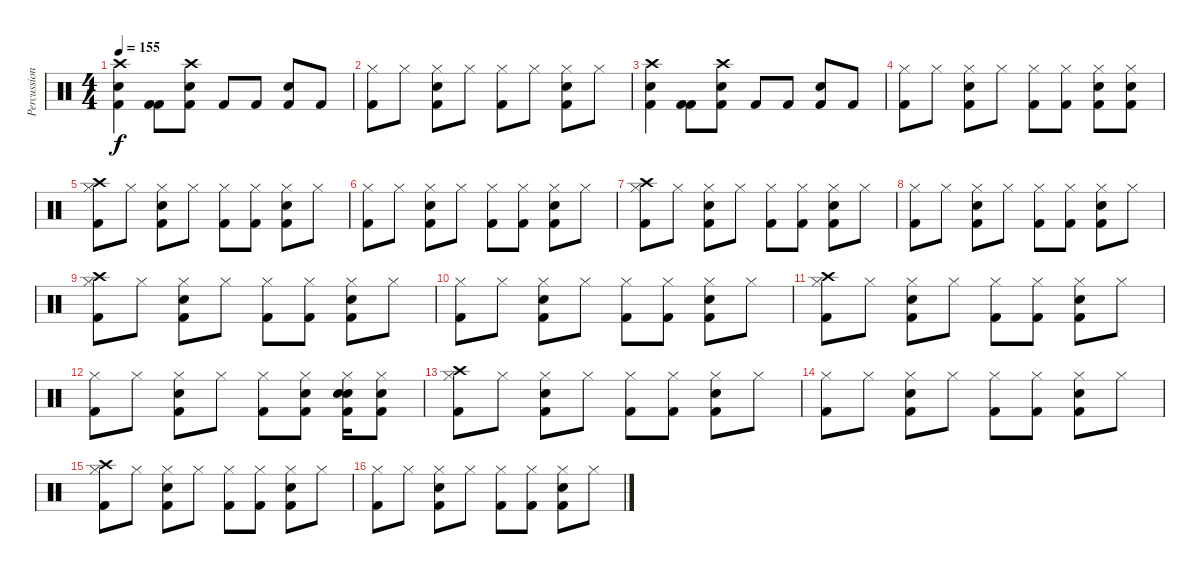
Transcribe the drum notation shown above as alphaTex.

\track ("Percussion" "Percussion") {instrument percussion}
\staff {score}
\articulation defaults
\ts (4 4)
\tempo 155
\clef neutral
\ks c
("Crash high (hit)" "Snare (hit) 2" "Kick (hit) 2").4{dy f} ("Kick (hit) 2" "Kick (hit) 2").8 ("Crash high (hit)" "Snare (hit) 2" "Kick (hit) 2").8 "Kick (hit) 2".8 "Kick (hit) 2".8 ("Snare (hit) 2" "Kick (hit) 2").8 "Kick (hit) 2".8 |
("Kick (hit) 2" "Hi-Hat (closed)").8 "Hi-Hat (closed)".8 ("Snare (hit) 2" "Kick (hit) 2" "Hi-Hat (closed)").8 "Hi-Hat (closed)".8 ("Kick (hit) 2" "Hi-Hat (closed)").8 "Hi-Hat (closed)".8 ("Snare (hit) 2" "Kick (hit) 2" "Hi-Hat (closed)").8 "Hi-Hat (closed)".8 |
("Crash high (hit)" "Snare (hit) 2" "Kick (hit) 2").4 ("Kick (hit) 2" "Kick (hit) 2").8 ("Crash high (hit)" "Snare (hit) 2" "Kick (hit) 2").8 "Kick (hit) 2".8 "Kick (hit) 2".8 ("Snare (hit) 2" "Kick (hit) 2").8 "Kick (hit) 2".8 |
("Kick (hit) 2" "Hi-Hat (closed)").8 "Hi-Hat (closed)".8 ("Snare (hit) 2" "Kick (hit) 2" "Hi-Hat (closed)").8 "Hi-Hat (closed)".8 ("Kick (hit) 2" "Hi-Hat (closed)").8 ("Kick (hit) 2" "Hi-Hat (closed)").8 ("Snare (hit) 2" "Kick (hit) 2" "Hi-Hat (closed)").8 ("Snare (hit) 2" "Kick (hit) 2" "Hi-Hat (closed)").8 |
("Crash high (hit)" "Kick (hit) 2" "Hi-Hat (closed)").8 "Hi-Hat (closed)".8 ("Kick (hit) 2" "Snare (hit) 2" "Hi-Hat (closed)").8 "Hi-Hat (closed)".8 ("Kick (hit) 2" "Hi-Hat (closed)").8 ("Kick (hit) 2" "Hi-Hat (closed)").8 ("Kick (hit) 2" "Snare (hit) 2" "Hi-Hat (closed)").8 "Hi-Hat (closed)".8 |
("Kick (hit) 2" "Hi-Hat (closed)").8 "Hi-Hat (closed)".8 ("Kick (hit) 2" "Snare (hit) 2" "Hi-Hat (closed)").8 "Hi-Hat (closed)".8 ("Kick (hit) 2" "Hi-Hat (closed)").8 ("Kick (hit) 2" "Hi-Hat (closed)").8 ("Kick (hit) 2" "Snare (hit) 2" "Hi-Hat (closed)").8 "Hi-Hat (closed)".8 |
("Crash high (hit)" "Kick (hit) 2" "Hi-Hat (closed)").8 "Hi-Hat (closed)".8 ("Kick (hit) 2" "Snare (hit) 2" "Hi-Hat (closed)").8 "Hi-Hat (closed)".8 ("Kick (hit) 2" "Hi-Hat (closed)").8 ("Kick (hit) 2" "Hi-Hat (closed)").8 ("Kick (hit) 2" "Snare (hit) 2" "Hi-Hat (closed)").8 "Hi-Hat (closed)".8 |
("Kick (hit) 2" "Hi-Hat (closed)").8 "Hi-Hat (closed)".8 ("Kick (hit) 2" "Snare (hit) 2" "Hi-Hat (closed)").8 "Hi-Hat (closed)".8 ("Kick (hit) 2" "Hi-Hat (closed)").8 ("Kick (hit) 2" "Hi-Hat (closed)").8 ("Kick (hit) 2" "Snare (hit) 2" "Hi-Hat (closed)").8 "Hi-Hat (closed)".8 |
("Crash high (hit)" "Kick (hit) 2" "Hi-Hat (closed)").8 "Hi-Hat (closed)".8 ("Kick (hit) 2" "Snare (hit) 2" "Hi-Hat (closed)").8 "Hi-Hat (closed)".8 ("Kick (hit) 2" "Hi-Hat (closed)").8 ("Kick (hit) 2" "Hi-Hat (closed)").8 ("Kick (hit) 2" "Snare (hit) 2" "Hi-Hat (closed)").8 "Hi-Hat (closed)".8 |
("Kick (hit) 2" "Hi-Hat (closed)").8 "Hi-Hat (closed)".8 ("Kick (hit) 2" "Snare (hit) 2" "Hi-Hat (closed)").8 "Hi-Hat (closed)".8 ("Kick (hit) 2" "Hi-Hat (closed)").8 ("Kick (hit) 2" "Hi-Hat (closed)").8 ("Kick (hit) 2" "Snare (hit) 2" "Hi-Hat (closed)").8 "Hi-Hat (closed)".8 |
("Crash high (hit)" "Kick (hit) 2" "Hi-Hat (closed)").8 "Hi-Hat (closed)".8 ("Kick (hit) 2" "Snare (hit) 2" "Hi-Hat (closed)").8 "Hi-Hat (closed)".8 ("Kick (hit) 2" "Hi-Hat (closed)").8 ("Kick (hit) 2" "Hi-Hat (closed)").8 ("Kick (hit) 2" "Snare (hit) 2" "Hi-Hat (closed)").8 "Hi-Hat (closed)".8 |
("Kick (hit) 2" "Hi-Hat (closed)").8 "Hi-Hat (closed)".8 ("Kick (hit) 2" "Snare (hit) 2" "Hi-Hat (closed)").8 "Hi-Hat (closed)".8 ("Kick (hit) 2" "Hi-Hat (closed)").8 ("Kick (hit) 2" "Snare (hit) 2" "Hi-Hat (closed)").8 ("Kick (hit) 2" "Snare (hit) 2" "Snare (hit) 2" "Hi-Hat (closed)").16 ("Kick (hit) 2" "Snare (hit) 2" "Hi-Hat (closed)").8 |
("Crash high (hit)" "Kick (hit) 2" "Hi-Hat (closed)").8 "Hi-Hat (closed)".8 ("Kick (hit) 2" "Snare (hit) 2" "Hi-Hat (closed)").8 "Hi-Hat (closed)".8 ("Kick (hit) 2" "Hi-Hat (closed)").8 ("Kick (hit) 2" "Hi-Hat (closed)").8 ("Kick (hit) 2" "Snare (hit) 2" "Hi-Hat (closed)").8 "Hi-Hat (closed)".8 |
("Kick (hit) 2" "Hi-Hat (closed)").8 "Hi-Hat (closed)".8 ("Kick (hit) 2" "Snare (hit) 2" "Hi-Hat (closed)").8 "Hi-Hat (closed)".8 ("Kick (hit) 2" "Hi-Hat (closed)").8 ("Kick (hit) 2" "Hi-Hat (closed)").8 ("Kick (hit) 2" "Snare (hit) 2" "Hi-Hat (closed)").8 "Hi-Hat (closed)".8 |
("Crash high (hit)" "Kick (hit) 2" "Hi-Hat (closed)").8 "Hi-Hat (closed)".8 ("Kick (hit) 2" "Snare (hit) 2" "Hi-Hat (closed)").8 "Hi-Hat (closed)".8 ("Kick (hit) 2" "Hi-Hat (closed)").8 ("Kick (hit) 2" "Hi-Hat (closed)").8 ("Kick (hit) 2" "Snare (hit) 2" "Hi-Hat (closed)").8 "Hi-Hat (closed)".8 |
("Kick (hit) 2" "Hi-Hat (closed)").8 "Hi-Hat (closed)".8 ("Kick (hit) 2" "Snare (hit) 2" "Hi-Hat (closed)").8 "Hi-Hat (closed)".8 ("Kick (hit) 2" "Hi-Hat (closed)").8 ("Kick (hit) 2" "Hi-Hat (closed)").8 ("Kick (hit) 2" "Snare (hit) 2" "Hi-Hat (closed)").8 "Hi-Hat (closed)".8
